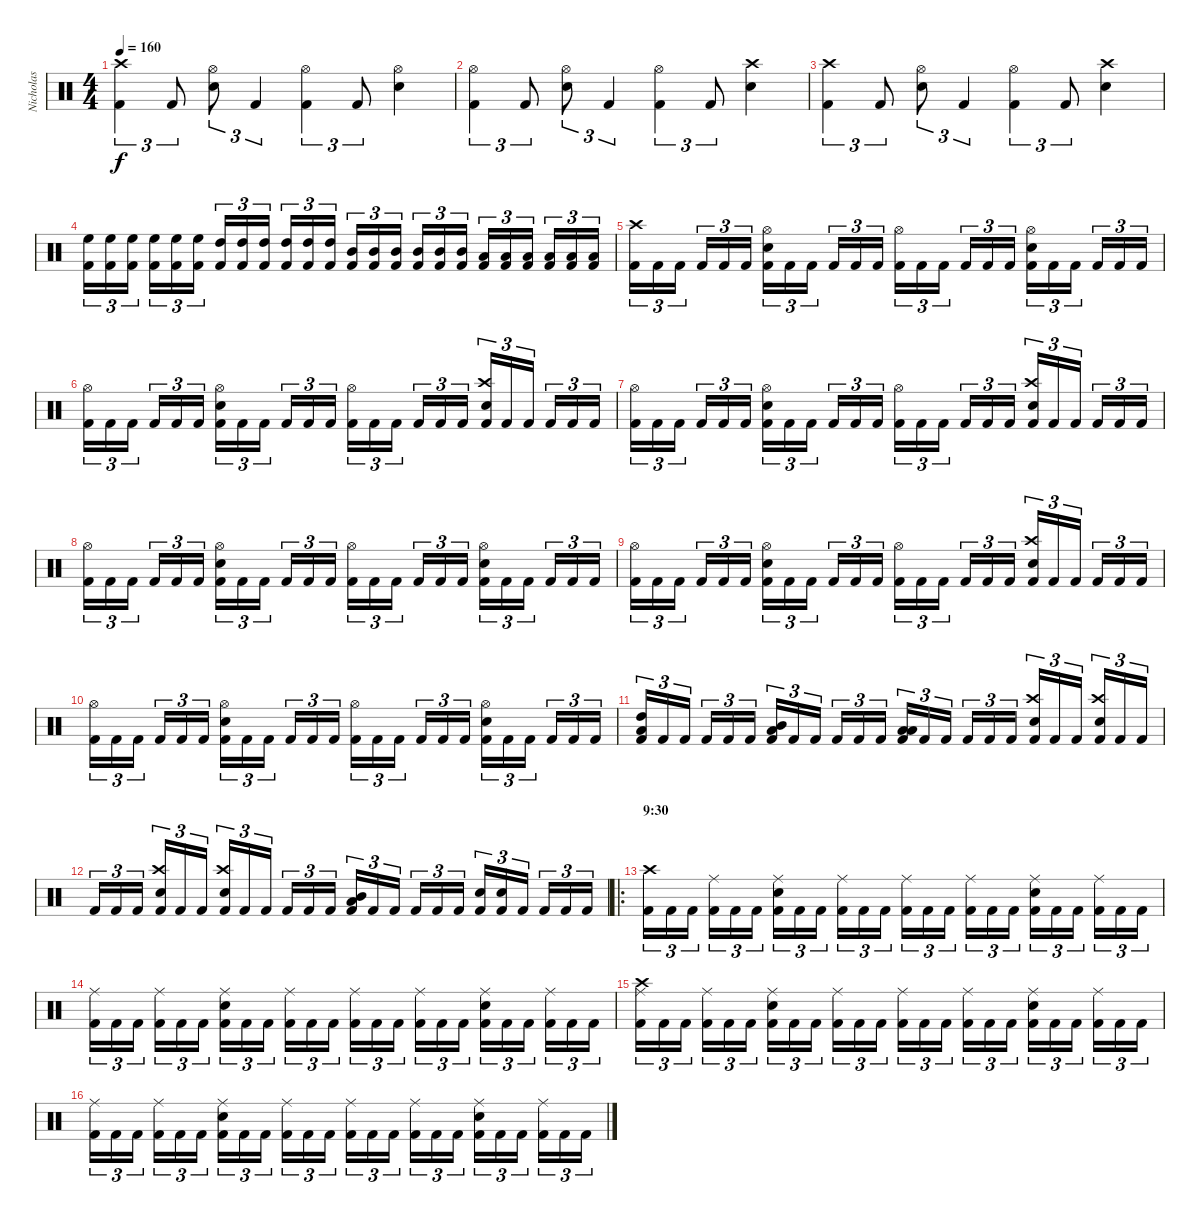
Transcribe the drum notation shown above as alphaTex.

\track ("Nicholas" "Nicholas") {instrument percussion}
\staff {score}
\articulation defaults
\ts (4 4)
\tempo 160
\clef neutral
\ks c
("Kick (hit) 2" "Crash high (hit)").4{tu (3 2) dy f} "Kick (hit) 2".8{tu (3 2)} ("Snare (hit) 2" "Hi-Hat (open)").8{tu (3 2)} "Kick (hit) 2".4{tu (3 2)} ("Kick (hit) 2" "Hi-Hat (open)").4{tu (3 2)} "Kick (hit) 2".8{tu (3 2)} ("Snare (hit) 2" "Hi-Hat (open)").4 |
("Kick (hit) 2" "Hi-Hat (open)").4{tu (3 2)} "Kick (hit) 2".8{tu (3 2)} ("Snare (hit) 2" "Hi-Hat (open)").8{tu (3 2)} "Kick (hit) 2".4{tu (3 2)} ("Kick (hit) 2" "Hi-Hat (open)").4{tu (3 2)} "Kick (hit) 2".8{tu (3 2)} ("Snare (hit) 2" "Crash high (hit)").4 |
("Kick (hit) 2" "Crash high (hit)").4{tu (3 2)} "Kick (hit) 2".8{tu (3 2)} ("Snare (hit) 2" "Hi-Hat (open)").8{tu (3 2)} "Kick (hit) 2".4{tu (3 2)} ("Kick (hit) 2" "Hi-Hat (open)").4{tu (3 2)} "Kick (hit) 2".8{tu (3 2)} ("Snare (hit) 2" "Crash high (hit)").4 |
("Kick (hit) 2" "High Floor Tom (hit)").16{tu (3 2)} ("Kick (hit) 2" "High Floor Tom (hit)").16{tu (3 2)} ("Kick (hit) 2" "High Floor Tom (hit)").16{tu (3 2)} ("Kick (hit) 2" "High Floor Tom (hit)").16{tu (3 2)} ("Kick (hit) 2" "High Floor Tom (hit)").16{tu (3 2)} ("Kick (hit) 2" "High Floor Tom (hit)").16{tu (3 2)} ("Kick (hit) 2" "High Tom (hit)").16{tu (3 2)} ("Kick (hit) 2" "High Tom (hit)").16{tu (3 2)} ("Kick (hit) 2" "High Tom (hit)").16{tu (3 2)} ("Kick (hit) 2" "High Tom (hit)").16{tu (3 2)} ("Kick (hit) 2" "High Tom (hit)").16{tu (3 2)} ("Kick (hit) 2" "High Tom (hit)").16{tu (3 2)} ("Kick (hit) 2" "Mid Tom (hit)").16{tu (3 2)} ("Kick (hit) 2" "Mid Tom (hit)").16{tu (3 2)} ("Kick (hit) 2" "Mid Tom (hit)").16{tu (3 2)} ("Kick (hit) 2" "Mid Tom (hit)").16{tu (3 2)} ("Kick (hit) 2" "Mid Tom (hit)").16{tu (3 2)} ("Kick (hit) 2" "Mid Tom (hit)").16{tu (3 2)} ("Kick (hit) 2" "Low Tom (hit)").16{tu (3 2)} ("Kick (hit) 2" "Low Tom (hit)").16{tu (3 2)} ("Kick (hit) 2" "Low Tom (hit)").16{tu (3 2)} ("Kick (hit) 2" "Low Tom (hit)").16{tu (3 2)} ("Kick (hit) 2" "Low Tom (hit)").16{tu (3 2)} ("Kick (hit) 2" "Low Tom (hit)").16{tu (3 2)} |
("Kick (hit) 2" "Crash high (hit)").16{tu (3 2)} "Kick (hit) 2".16{tu (3 2)} "Kick (hit) 2".16{tu (3 2)} "Kick (hit) 2".16{tu (3 2)} "Kick (hit) 2".16{tu (3 2)} "Kick (hit) 2".16{tu (3 2)} ("Kick (hit) 2" "Snare (hit) 2" "Hi-Hat (open)").16{tu (3 2)} "Kick (hit) 2".16{tu (3 2)} "Kick (hit) 2".16{tu (3 2)} "Kick (hit) 2".16{tu (3 2)} "Kick (hit) 2".16{tu (3 2)} "Kick (hit) 2".16{tu (3 2)} ("Kick (hit) 2" "Hi-Hat (open)").16{tu (3 2)} "Kick (hit) 2".16{tu (3 2)} "Kick (hit) 2".16{tu (3 2)} "Kick (hit) 2".16{tu (3 2)} "Kick (hit) 2".16{tu (3 2)} "Kick (hit) 2".16{tu (3 2)} ("Kick (hit) 2" "Snare (hit) 2" "Hi-Hat (open)").16{tu (3 2)} "Kick (hit) 2".16{tu (3 2)} "Kick (hit) 2".16{tu (3 2)} "Kick (hit) 2".16{tu (3 2)} "Kick (hit) 2".16{tu (3 2)} "Kick (hit) 2".16{tu (3 2)} |
("Kick (hit) 2" "Hi-Hat (open)").16{tu (3 2)} "Kick (hit) 2".16{tu (3 2)} "Kick (hit) 2".16{tu (3 2)} "Kick (hit) 2".16{tu (3 2)} "Kick (hit) 2".16{tu (3 2)} "Kick (hit) 2".16{tu (3 2)} ("Kick (hit) 2" "Snare (hit) 2" "Hi-Hat (open)").16{tu (3 2)} "Kick (hit) 2".16{tu (3 2)} "Kick (hit) 2".16{tu (3 2)} "Kick (hit) 2".16{tu (3 2)} "Kick (hit) 2".16{tu (3 2)} "Kick (hit) 2".16{tu (3 2)} ("Kick (hit) 2" "Hi-Hat (open)").16{tu (3 2)} "Kick (hit) 2".16{tu (3 2)} "Kick (hit) 2".16{tu (3 2)} "Kick (hit) 2".16{tu (3 2)} "Kick (hit) 2".16{tu (3 2)} "Kick (hit) 2".16{tu (3 2)} ("Kick (hit) 2" "Snare (hit) 2" "Crash high (hit)").16{tu (3 2)} "Kick (hit) 2".16{tu (3 2)} "Kick (hit) 2".16{tu (3 2)} "Kick (hit) 2".16{tu (3 2)} "Kick (hit) 2".16{tu (3 2)} "Kick (hit) 2".16{tu (3 2)} |
("Kick (hit) 2" "Hi-Hat (open)").16{tu (3 2)} "Kick (hit) 2".16{tu (3 2)} "Kick (hit) 2".16{tu (3 2)} "Kick (hit) 2".16{tu (3 2)} "Kick (hit) 2".16{tu (3 2)} "Kick (hit) 2".16{tu (3 2)} ("Kick (hit) 2" "Snare (hit) 2" "Hi-Hat (open)").16{tu (3 2)} "Kick (hit) 2".16{tu (3 2)} "Kick (hit) 2".16{tu (3 2)} "Kick (hit) 2".16{tu (3 2)} "Kick (hit) 2".16{tu (3 2)} "Kick (hit) 2".16{tu (3 2)} ("Kick (hit) 2" "Hi-Hat (open)").16{tu (3 2)} "Kick (hit) 2".16{tu (3 2)} "Kick (hit) 2".16{tu (3 2)} "Kick (hit) 2".16{tu (3 2)} "Kick (hit) 2".16{tu (3 2)} "Kick (hit) 2".16{tu (3 2)} ("Kick (hit) 2" "Snare (hit) 2" "Crash high (hit)").16{tu (3 2)} "Kick (hit) 2".16{tu (3 2)} "Kick (hit) 2".16{tu (3 2)} "Kick (hit) 2".16{tu (3 2)} "Kick (hit) 2".16{tu (3 2)} "Kick (hit) 2".16{tu (3 2)} |
("Kick (hit) 2" "Hi-Hat (open)").16{tu (3 2)} "Kick (hit) 2".16{tu (3 2)} "Kick (hit) 2".16{tu (3 2)} "Kick (hit) 2".16{tu (3 2)} "Kick (hit) 2".16{tu (3 2)} "Kick (hit) 2".16{tu (3 2)} ("Kick (hit) 2" "Snare (hit) 2" "Hi-Hat (open)").16{tu (3 2)} "Kick (hit) 2".16{tu (3 2)} "Kick (hit) 2".16{tu (3 2)} "Kick (hit) 2".16{tu (3 2)} "Kick (hit) 2".16{tu (3 2)} "Kick (hit) 2".16{tu (3 2)} ("Kick (hit) 2" "Hi-Hat (open)").16{tu (3 2)} "Kick (hit) 2".16{tu (3 2)} "Kick (hit) 2".16{tu (3 2)} "Kick (hit) 2".16{tu (3 2)} "Kick (hit) 2".16{tu (3 2)} "Kick (hit) 2".16{tu (3 2)} ("Kick (hit) 2" "Snare (hit) 2" "Hi-Hat (open)").16{tu (3 2)} "Kick (hit) 2".16{tu (3 2)} "Kick (hit) 2".16{tu (3 2)} "Kick (hit) 2".16{tu (3 2)} "Kick (hit) 2".16{tu (3 2)} "Kick (hit) 2".16{tu (3 2)} |
("Kick (hit) 2" "Hi-Hat (open)").16{tu (3 2)} "Kick (hit) 2".16{tu (3 2)} "Kick (hit) 2".16{tu (3 2)} "Kick (hit) 2".16{tu (3 2)} "Kick (hit) 2".16{tu (3 2)} "Kick (hit) 2".16{tu (3 2)} ("Kick (hit) 2" "Snare (hit) 2" "Hi-Hat (open)").16{tu (3 2)} "Kick (hit) 2".16{tu (3 2)} "Kick (hit) 2".16{tu (3 2)} "Kick (hit) 2".16{tu (3 2)} "Kick (hit) 2".16{tu (3 2)} "Kick (hit) 2".16{tu (3 2)} ("Kick (hit) 2" "Hi-Hat (open)").16{tu (3 2)} "Kick (hit) 2".16{tu (3 2)} "Kick (hit) 2".16{tu (3 2)} "Kick (hit) 2".16{tu (3 2)} "Kick (hit) 2".16{tu (3 2)} "Kick (hit) 2".16{tu (3 2)} ("Kick (hit) 2" "Snare (hit) 2" "Crash high (hit)").16{tu (3 2)} "Kick (hit) 2".16{tu (3 2)} "Kick (hit) 2".16{tu (3 2)} "Kick (hit) 2".16{tu (3 2)} "Kick (hit) 2".16{tu (3 2)} "Kick (hit) 2".16{tu (3 2)} |
("Kick (hit) 2" "Hi-Hat (open)").16{tu (3 2)} "Kick (hit) 2".16{tu (3 2)} "Kick (hit) 2".16{tu (3 2)} "Kick (hit) 2".16{tu (3 2)} "Kick (hit) 2".16{tu (3 2)} "Kick (hit) 2".16{tu (3 2)} ("Kick (hit) 2" "Snare (hit) 2" "Hi-Hat (open)").16{tu (3 2)} "Kick (hit) 2".16{tu (3 2)} "Kick (hit) 2".16{tu (3 2)} "Kick (hit) 2".16{tu (3 2)} "Kick (hit) 2".16{tu (3 2)} "Kick (hit) 2".16{tu (3 2)} ("Kick (hit) 2" "Hi-Hat (open)").16{tu (3 2)} "Kick (hit) 2".16{tu (3 2)} "Kick (hit) 2".16{tu (3 2)} "Kick (hit) 2".16{tu (3 2)} "Kick (hit) 2".16{tu (3 2)} "Kick (hit) 2".16{tu (3 2)} ("Kick (hit) 2" "Snare (hit) 2" "Hi-Hat (open)").16{tu (3 2)} "Kick (hit) 2".16{tu (3 2)} "Kick (hit) 2".16{tu (3 2)} "Kick (hit) 2".16{tu (3 2)} "Kick (hit) 2".16{tu (3 2)} "Kick (hit) 2".16{tu (3 2)} |
("Kick (hit) 2" "Low Tom (hit)" "High Tom (hit)").16{tu (3 2)} "Kick (hit) 2".16{tu (3 2)} "Kick (hit) 2".16{tu (3 2)} "Kick (hit) 2".16{tu (3 2)} "Kick (hit) 2".16{tu (3 2)} "Kick (hit) 2".16{tu (3 2)} ("Kick (hit) 2" "Low Tom (hit)" "Mid Tom (hit)").16{tu (3 2)} "Kick (hit) 2".16{tu (3 2)} "Kick (hit) 2".16{tu (3 2)} "Kick (hit) 2".16{tu (3 2)} "Kick (hit) 2".16{tu (3 2)} "Kick (hit) 2".16{tu (3 2)} ("Kick (hit) 2" "Low Tom (hit)" "Low Tom (hit)").16{tu (3 2)} "Kick (hit) 2".16{tu (3 2)} "Kick (hit) 2".16{tu (3 2)} "Kick (hit) 2".16{tu (3 2)} "Kick (hit) 2".16{tu (3 2)} "Kick (hit) 2".16{tu (3 2)} ("Kick (hit) 2" "Snare (hit) 2" "Crash high (hit)").16{tu (3 2)} "Kick (hit) 2".16{tu (3 2)} "Kick (hit) 2".16{tu (3 2)} ("Kick (hit) 2" "Snare (hit) 2" "Crash high (hit)").16{tu (3 2)} "Kick (hit) 2".16{tu (3 2)} "Kick (hit) 2".16{tu (3 2)} |
"Kick (hit) 2".16{tu (3 2)} "Kick (hit) 2".16{tu (3 2)} "Kick (hit) 2".16{tu (3 2)} ("Kick (hit) 2" "Snare (hit) 2" "Crash high (hit)").16{tu (3 2)} "Kick (hit) 2".16{tu (3 2)} "Kick (hit) 2".16{tu (3 2)} ("Kick (hit) 2" "Snare (hit) 2" "Crash high (hit)").16{tu (3 2)} "Kick (hit) 2".16{tu (3 2)} "Kick (hit) 2".16{tu (3 2)} "Kick (hit) 2".16{tu (3 2)} "Kick (hit) 2".16{tu (3 2)} "Kick (hit) 2".16{tu (3 2)} ("Kick (hit) 2" "Low Tom (hit)" "Mid Tom (hit)").16{tu (3 2)} "Kick (hit) 2".16{tu (3 2)} "Kick (hit) 2".16{tu (3 2)} "Kick (hit) 2".16{tu (3 2)} "Kick (hit) 2".16{tu (3 2)} "Kick (hit) 2".16{tu (3 2)} ("Kick (hit) 2" "Snare (hit) 2").16{tu (3 2)} ("Kick (hit) 2" "Snare (hit) 2").16{tu (3 2)} "Kick (hit) 2".16{tu (3 2)} "Kick (hit) 2".16{tu (3 2)} "Kick (hit) 2".16{tu (3 2)} "Kick (hit) 2".16{tu (3 2)} |
\ro
\section ("" "9:30")
("Kick (hit) 2" "Crash high (hit)").16{tu (3 2)} "Kick (hit) 2".16{tu (3 2)} "Kick (hit) 2".16{tu (3 2)} ("Kick (hit) 2" "Ride (middle)").16{tu (3 2)} "Kick (hit) 2".16{tu (3 2)} "Kick (hit) 2".16{tu (3 2)} ("Kick (hit) 2" "Snare (hit) 2" "Ride (middle)").16{tu (3 2)} "Kick (hit) 2".16{tu (3 2)} "Kick (hit) 2".16{tu (3 2)} ("Kick (hit) 2" "Ride (middle)").16{tu (3 2)} "Kick (hit) 2".16{tu (3 2)} "Kick (hit) 2".16{tu (3 2)} ("Kick (hit) 2" "Ride (middle)").16{tu (3 2)} "Kick (hit) 2".16{tu (3 2)} "Kick (hit) 2".16{tu (3 2)} ("Kick (hit) 2" "Ride (middle)").16{tu (3 2)} "Kick (hit) 2".16{tu (3 2)} "Kick (hit) 2".16{tu (3 2)} ("Kick (hit) 2" "Snare (hit) 2" "Ride (middle)").16{tu (3 2)} "Kick (hit) 2".16{tu (3 2)} "Kick (hit) 2".16{tu (3 2)} ("Kick (hit) 2" "Ride (middle)").16{tu (3 2)} "Kick (hit) 2".16{tu (3 2)} "Kick (hit) 2".16{tu (3 2)} |
("Kick (hit) 2" "Ride (middle)").16{tu (3 2)} "Kick (hit) 2".16{tu (3 2)} "Kick (hit) 2".16{tu (3 2)} ("Kick (hit) 2" "Ride (middle)").16{tu (3 2)} "Kick (hit) 2".16{tu (3 2)} "Kick (hit) 2".16{tu (3 2)} ("Kick (hit) 2" "Snare (hit) 2" "Ride (middle)").16{tu (3 2)} "Kick (hit) 2".16{tu (3 2)} "Kick (hit) 2".16{tu (3 2)} ("Kick (hit) 2" "Ride (middle)").16{tu (3 2)} "Kick (hit) 2".16{tu (3 2)} "Kick (hit) 2".16{tu (3 2)} ("Kick (hit) 2" "Ride (middle)").16{tu (3 2)} "Kick (hit) 2".16{tu (3 2)} "Kick (hit) 2".16{tu (3 2)} ("Kick (hit) 2" "Ride (middle)").16{tu (3 2)} "Kick (hit) 2".16{tu (3 2)} "Kick (hit) 2".16{tu (3 2)} ("Kick (hit) 2" "Snare (hit) 2" "Ride (middle)").16{tu (3 2)} "Kick (hit) 2".16{tu (3 2)} "Kick (hit) 2".16{tu (3 2)} ("Kick (hit) 2" "Ride (middle)").16{tu (3 2)} "Kick (hit) 2".16{tu (3 2)} "Kick (hit) 2".16{tu (3 2)} |
("Kick (hit) 2" "Ride (middle)" "Crash high (hit)").16{tu (3 2)} "Kick (hit) 2".16{tu (3 2)} "Kick (hit) 2".16{tu (3 2)} ("Kick (hit) 2" "Ride (middle)").16{tu (3 2)} "Kick (hit) 2".16{tu (3 2)} "Kick (hit) 2".16{tu (3 2)} ("Kick (hit) 2" "Snare (hit) 2" "Ride (middle)").16{tu (3 2)} "Kick (hit) 2".16{tu (3 2)} "Kick (hit) 2".16{tu (3 2)} ("Kick (hit) 2" "Ride (middle)").16{tu (3 2)} "Kick (hit) 2".16{tu (3 2)} "Kick (hit) 2".16{tu (3 2)} ("Kick (hit) 2" "Ride (middle)").16{tu (3 2)} "Kick (hit) 2".16{tu (3 2)} "Kick (hit) 2".16{tu (3 2)} ("Kick (hit) 2" "Ride (middle)").16{tu (3 2)} "Kick (hit) 2".16{tu (3 2)} "Kick (hit) 2".16{tu (3 2)} ("Kick (hit) 2" "Snare (hit) 2" "Ride (middle)").16{tu (3 2)} "Kick (hit) 2".16{tu (3 2)} "Kick (hit) 2".16{tu (3 2)} ("Kick (hit) 2" "Ride (middle)").16{tu (3 2)} "Kick (hit) 2".16{tu (3 2)} "Kick (hit) 2".16{tu (3 2)} |
("Kick (hit) 2" "Ride (middle)").16{tu (3 2)} "Kick (hit) 2".16{tu (3 2)} "Kick (hit) 2".16{tu (3 2)} ("Kick (hit) 2" "Ride (middle)").16{tu (3 2)} "Kick (hit) 2".16{tu (3 2)} "Kick (hit) 2".16{tu (3 2)} ("Kick (hit) 2" "Snare (hit) 2" "Ride (middle)").16{tu (3 2)} "Kick (hit) 2".16{tu (3 2)} "Kick (hit) 2".16{tu (3 2)} ("Kick (hit) 2" "Ride (middle)").16{tu (3 2)} "Kick (hit) 2".16{tu (3 2)} "Kick (hit) 2".16{tu (3 2)} ("Kick (hit) 2" "Ride (middle)").16{tu (3 2)} "Kick (hit) 2".16{tu (3 2)} "Kick (hit) 2".16{tu (3 2)} ("Kick (hit) 2" "Ride (middle)").16{tu (3 2)} "Kick (hit) 2".16{tu (3 2)} "Kick (hit) 2".16{tu (3 2)} ("Kick (hit) 2" "Snare (hit) 2" "Ride (middle)").16{tu (3 2)} "Kick (hit) 2".16{tu (3 2)} "Kick (hit) 2".16{tu (3 2)} ("Kick (hit) 2" "Ride (middle)").16{tu (3 2)} "Kick (hit) 2".16{tu (3 2)} "Kick (hit) 2".16{tu (3 2)}
